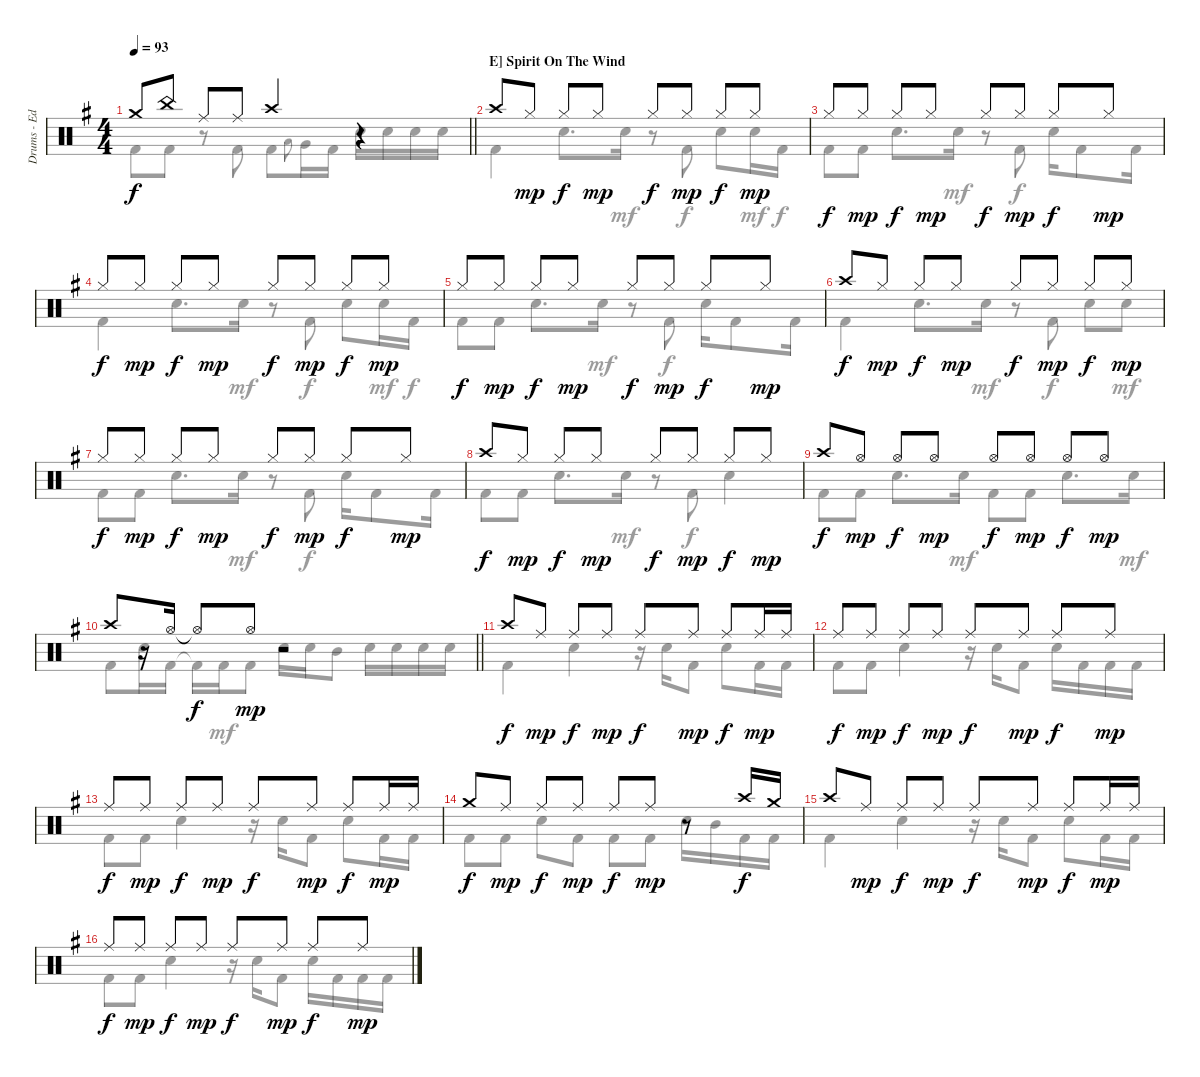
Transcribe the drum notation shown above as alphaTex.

\track ("Drums - Ed Warby" "Drums - Ed") {instrument percussion}
\staff {score}
\articulation defaults
\voice
\ts (4 4)
\tempo 93
\clef neutral
\barLineRight lightlight
\ks eminor "Crash medium (hit)".8{dy f} "China (hit)".8 "Ride (middle)".8 "Ride (middle)".8 "Crash high (hit)".4
r.4 |
\section ("" "E] Spirit On The Wind")
"Crash high (hit)".8 "Hi-Hat (closed)".8{dy mp} "Hi-Hat (closed)".8{dy f} "Hi-Hat (closed)".8{dy mp} "Hi-Hat (closed)".8{dy f} "Hi-Hat (closed)".8{dy mp} "Hi-Hat (closed)".8{dy f} "Hi-Hat (closed)".8{dy mp} |
"Hi-Hat (closed)".8{dy f} "Hi-Hat (closed)".8{dy mp} "Hi-Hat (closed)".8{dy f} "Hi-Hat (closed)".8{dy mp} "Hi-Hat (closed)".8{dy f} "Hi-Hat (closed)".8{dy mp} "Hi-Hat (closed)".8{dy f} "Hi-Hat (closed)".8{dy mp} |
"Hi-Hat (closed)".8{dy f} "Hi-Hat (closed)".8{dy mp} "Hi-Hat (closed)".8{dy f} "Hi-Hat (closed)".8{dy mp} "Hi-Hat (closed)".8{dy f} "Hi-Hat (closed)".8{dy mp} "Hi-Hat (closed)".8{dy f} "Hi-Hat (closed)".8{dy mp} |
"Hi-Hat (closed)".8{dy f} "Hi-Hat (closed)".8{dy mp} "Hi-Hat (closed)".8{dy f} "Hi-Hat (closed)".8{dy mp} "Hi-Hat (closed)".8{dy f} "Hi-Hat (closed)".8{dy mp} "Hi-Hat (closed)".8{dy f} "Hi-Hat (closed)".8{dy mp} |
"Crash high (hit)".8{dy f} "Hi-Hat (closed)".8{dy mp} "Hi-Hat (closed)".8{dy f} "Hi-Hat (closed)".8{dy mp} "Hi-Hat (closed)".8{dy f} "Hi-Hat (closed)".8{dy mp} "Hi-Hat (closed)".8{dy f} "Hi-Hat (closed)".8{dy mp} |
"Hi-Hat (closed)".8{dy f} "Hi-Hat (closed)".8{dy mp} "Hi-Hat (closed)".8{dy f} "Hi-Hat (closed)".8{dy mp} "Hi-Hat (closed)".8{dy f} "Hi-Hat (closed)".8{dy mp} "Hi-Hat (closed)".8{dy f} "Hi-Hat (closed)".8{dy mp} |
"Crash high (hit)".8{dy f} "Hi-Hat (closed)".8{dy mp} "Hi-Hat (closed)".8{dy f} "Hi-Hat (closed)".8{dy mp} "Hi-Hat (closed)".8{dy f} "Hi-Hat (closed)".8{dy mp} "Hi-Hat (closed)".8{dy f} "Hi-Hat (closed)".8{dy mp} |
"Crash high (hit)".8{dy f} "Hi-Hat (open)".8{dy mp} "Hi-Hat (open)".8{dy f} "Hi-Hat (open)".8{dy mp} "Hi-Hat (open)".8{dy f} "Hi-Hat (open)".8{dy mp} "Hi-Hat (open)".8{dy f} "Hi-Hat (open)".8{dy mp} |
\barLineRight lightlight "Crash high (hit)".8
r.16 "Hi-Hat (open)".16 "Hi-Hat (open)"{t}.8{dy f} "Hi-Hat (open)".8{dy mp} r.2 |
"Crash high (hit)".8{dy f} "Ride (middle)".8{dy mp} "Ride (middle)".8{dy f} "Ride (middle)".8{dy mp} "Ride (middle)".8{dy f} "Ride (middle)".8{dy mp} "Ride (middle)".8{dy f} "Ride (middle)".16{dy mp} "Ride (middle)".16 |
"Ride (middle)".8{dy f} "Ride (middle)".8{dy mp} "Ride (middle)".8{dy f} "Ride (middle)".8{dy mp} "Ride (middle)".8{dy f} "Ride (middle)".8{dy mp} "Ride (middle)".8{dy f} "Ride (middle)".8{dy mp} |
"Ride (middle)".8{dy f} "Ride (middle)".8{dy mp} "Ride (middle)".8{dy f} "Ride (middle)".8{dy mp} "Ride (middle)".8{dy f} "Ride (middle)".8{dy mp} "Ride (middle)".8{dy f} "Ride (middle)".16{dy mp} "Ride (middle)".16 |
"Crash medium (hit)".8{dy f} "Ride (middle)".8{dy mp} "Ride (middle)".8{dy f} "Ride (middle)".8{dy mp} "Ride (middle)".8{dy f} "Ride (middle)".8{dy mp} r.8 "Crash high (hit)".16{dy f} "Crash medium (hit)".16 |
"Crash high (hit)".8 "Ride (middle)".8{dy mp} "Ride (middle)".8{dy f} "Ride (middle)".8{dy mp} "Ride (middle)".8{dy f} "Ride (middle)".8{dy mp} "Ride (middle)".8{dy f} "Ride (middle)".16{dy mp} "Ride (middle)".16 |
"Ride (middle)".8{dy f} "Ride (middle)".8{dy mp} "Ride (middle)".8{dy f} "Ride (middle)".8{dy mp} "Ride (middle)".8{dy f} "Ride (middle)".8{dy mp} "Ride (middle)".8{dy f} "Ride (middle)".8{dy mp}
\voice
\clef neutral
\ottava regular
\simile none
\barLineRight lightlight
\ks eminor "Kick (hit) 2".8{dy f} "Kick (hit) 2".8
r.8 "Kick (hit) 2".8 "Kick (hit) 2".8 "Low Tom (hit)".8{gr onbeat} "Very Low Tom (hit)".16 "Kick (hit) 2".16 "Snare (hit) 2".16 "Snare (hit) 2".16 "Electric Snare (hit)".16 "Electric Snare (hit)".16 |
"Kick (hit) 2".4 "Electric Snare (hit)".8{d} "Electric Snare (hit)".16{dy mf} r.8 "Kick (hit) 2".8{dy f} "Electric Snare (hit)".8 "Snare (hit)".16{dy mf} "Kick (hit) 2".16{dy f} |
"Kick (hit) 2".8 "Kick (hit) 2".8 "Electric Snare (hit)".8{d} "Electric Snare (hit)".16{dy mf} r.8 "Kick (hit) 2".8{dy f} "Electric Snare (hit)".16 "Kick (hit) 2".8 "Kick (hit) 2".16 |
"Kick (hit) 2".4 "Electric Snare (hit)".8{d} "Electric Snare (hit)".16{dy mf} r.8 "Kick (hit) 2".8{dy f} "Electric Snare (hit)".8 "Snare (hit)".16{dy mf} "Kick (hit) 2".16{dy f} |
"Kick (hit) 2".8 "Kick (hit) 2".8 "Electric Snare (hit)".8{d} "Electric Snare (hit)".16{dy mf} r.8 "Kick (hit) 2".8{dy f} "Electric Snare (hit)".16 "Kick (hit) 2".8 "Kick (hit) 2".16 |
"Kick (hit) 2".4 "Electric Snare (hit)".8{d} "Electric Snare (hit)".16{dy mf} r.8 "Kick (hit) 2".8{dy f} "Electric Snare (hit)".8 "Snare (hit)".8{dy mf} |
"Kick (hit) 2".8{dy f} "Kick (hit) 2".8 "Electric Snare (hit)".8{d} "Electric Snare (hit)".16{dy mf} r.8 "Kick (hit) 2".8{dy f} "Electric Snare (hit)".16 "Kick (hit) 2".8 "Kick (hit) 2".16 |
"Kick (hit) 2".8 "Kick (hit) 2".8 "Electric Snare (hit)".8{d} "Electric Snare (hit)".16{dy mf} r.8 "Kick (hit) 2".8{dy f} "Electric Snare (hit)".4 |
"Kick (hit) 2".8 "Kick (hit) 2".8 "Electric Snare (hit)".8{d} "Electric Snare (hit)".16{dy mf} "Kick (hit) 2".8{dy f} "Kick (hit) 2".8 "Electric Snare (hit)".8{d} "Electric Snare (hit)".16{dy mf} |
\barLineRight lightlight "Kick (hit) 2".8 "Electric Snare (hit)".16 "Kick (hit) 2".16 "Kick (hit) 2"{t}.16{dy f} "Kick (hit) 2".16{dy mf} "Kick (hit) 2".8 "Electric Snare (hit)".16 "Electric Snare (hit)".16 "Mid Tom (hit)".8 "Snare (hit) 2".16 "Snare (hit) 2".16 "Snare (hit) 2".16 "Snare (hit) 2".16
|
"Kick (hit) 2".4{dy f} "Snare (hit) 2".4 r.16 "Snare (hit) 2".16 "Kick (hit) 2".8 "Snare (hit) 2".8 "Kick (hit) 2".16 "Kick (hit) 2".16 |
"Kick (hit) 2".8 "Kick (hit) 2".8 "Snare (hit) 2".4 r.16 "Snare (hit) 2".16 "Kick (hit) 2".8 "Snare (hit) 2".16 "Kick (hit) 2".16 "Kick (hit) 2".16 "Kick (hit) 2".16 |
"Kick (hit) 2".8 "Kick (hit) 2".8 "Snare (hit) 2".4 r.16 "Snare (hit) 2".16 "Kick (hit) 2".8 "Snare (hit) 2".8 "Kick (hit) 2".16 "Kick (hit) 2".16 |
"Kick (hit) 2".8 "Kick (hit) 2".8 "Snare (hit) 2".8 "Kick (hit) 2".8 "Kick (hit) 2".8 "Kick (hit) 2".8 "Snare (hit) 2".16 "Mid Tom (hit)".16 "Kick (hit) 2".16 "Kick (hit) 2".16 |
"Kick (hit) 2".4 "Snare (hit) 2".4 r.16 "Snare (hit) 2".16 "Kick (hit) 2".8 "Snare (hit) 2".8 "Kick (hit) 2".16 "Kick (hit) 2".16 |
"Kick (hit) 2".8 "Kick (hit) 2".8 "Snare (hit) 2".4 r.16 "Snare (hit) 2".16 "Kick (hit) 2".8 "Snare (hit) 2".16 "Kick (hit) 2".16 "Kick (hit) 2".16 "Kick (hit) 2".16
